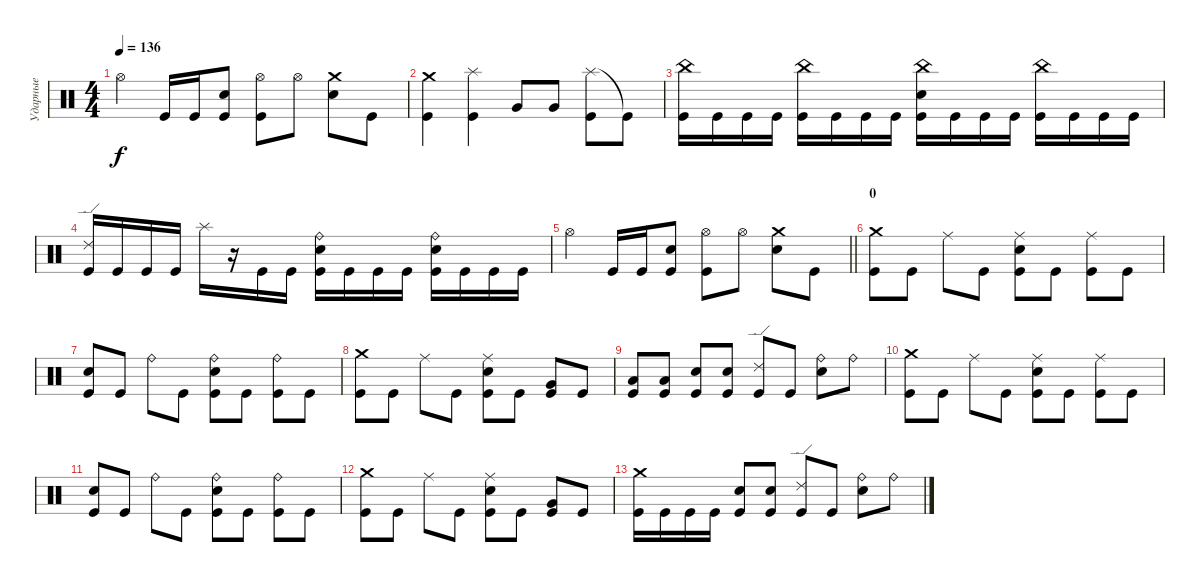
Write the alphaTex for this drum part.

\track ("Ударные" "Ударные") {instrument percussion}
\staff {score}
\articulation defaults
\ts (4 4)
\tempo 136
\clef neutral
\ks c "Hi-Hat (open)".4{dy f} "Kick (hit)".16 "Kick (hit)".16
("Electric Snare (hit)" "Kick (hit)").8 ("Hi-Hat (open)" "Kick (hit)").8 "Hi-Hat (open)".8 ("Crash medium (hit)" "Electric Snare (hit)").8 "Kick (hit)".8 |
("Crash medium (hit)" "Kick (hit)").4 ("Kick (hit)" "Splash (hit)").4 "Very Low Tom (hit)".8 "Very Low Tom (hit)".8 ("Splash (hit)" "Kick (hit)").8 "Kick (hit)"{t}.8 |
("China (hit)" "Kick (hit)").16 "Kick (hit)".16 "Kick (hit)".16 "Kick (hit)".16 ("China (hit)" "Kick (hit)").16 "Kick (hit)".16 "Kick (hit)".16 "Kick (hit)".16 ("Electric Snare (hit)" "China (hit)" "Kick (hit)").16 "Kick (hit)".16 "Kick (hit)".16 "Kick (hit)".16 ("China (hit)" "Kick (hit)").16 "Kick (hit)".16 "Kick (hit)".16 "Kick (hit)".16 |
("Ride (edge) 2" "Kick (hit)").16 "Kick (hit)".16 "Kick (hit)".16 "Kick (hit)".16 "Splash (hit)".16 r.16 "Kick (hit)".16 "Kick (hit)".16 ("Ride (bell)" "Electric Snare (hit)" "Kick (hit)").16 "Kick (hit)".16 "Kick (hit)".16 "Kick (hit)".16 ("Ride (bell)" "Electric Snare (hit)" "Kick (hit)").16 "Kick (hit)".16 "Kick (hit)".16 "Kick (hit)".16 |
\barLineRight lightlight "Hi-Hat (open)".4 "Kick (hit)".16 "Kick (hit)".16
("Electric Snare (hit)" "Kick (hit)").8 ("Hi-Hat (open)" "Kick (hit)").8 "Hi-Hat (open)".8 ("Crash medium (hit)" "Electric Snare (hit)").8 "Kick (hit)".8 |
\section ("" "0")
("Crash medium (hit)" "Kick (hit)").8 "Kick (hit)".8 "Ride (middle)".8 "Kick (hit)".8 ("Ride (middle)" "Kick (hit)" "Electric Snare (hit)").8 "Kick (hit)".8 ("Ride (middle)" "Kick (hit)").8 "Kick (hit)".8 |
("Kick (hit)" "Electric Snare (hit)").8 "Kick (hit)".8 "Ride (bell)".8 "Kick (hit)".8 ("Electric Snare (hit)" "Kick (hit)" "Ride (bell)").8 "Kick (hit)".8 ("Ride (bell)" "Kick (hit)").8 "Kick (hit)".8 |
("Crash medium (hit)" "Kick (hit)").8 "Kick (hit)".8 "Ride (middle)".8 "Kick (hit)".8 ("Ride (middle)" "Kick (hit)" "Electric Snare (hit)").8 "Kick (hit)".8 ("Very Low Tom (hit)" "Kick (hit)").8 "Kick (hit)".8 |
("Low Floor Tom (hit)" "Kick (hit)").8 ("Low Floor Tom (hit)" "Kick (hit)").8 ("Electric Snare (hit)" "Kick (hit)").8 ("Electric Snare (hit)" "Kick (hit)").8 ("Ride (edge) 2" "Kick (hit)").8 "Kick (hit)".8 ("Electric Snare (hit)" "Ride (bell)").8 "Ride (bell)".8 |
("Crash medium (hit)" "Kick (hit)").8 "Kick (hit)".8 "Ride (middle)".8 "Kick (hit)".8 ("Ride (middle)" "Kick (hit)" "Electric Snare (hit)").8 "Kick (hit)".8 ("Ride (middle)" "Kick (hit)").8 "Kick (hit)".8 |
("Kick (hit)" "Electric Snare (hit)").8 "Kick (hit)".8 "Ride (bell)".8 "Kick (hit)".8 ("Electric Snare (hit)" "Kick (hit)" "Ride (bell)").8 "Kick (hit)".8 ("Ride (bell)" "Kick (hit)").8 "Kick (hit)".8 |
("Crash medium (hit)" "Kick (hit)").8 "Kick (hit)".8 "Ride (middle)".8 "Kick (hit)".8 ("Ride (middle)" "Kick (hit)" "Electric Snare (hit)").8 "Kick (hit)".8 ("Very Low Tom (hit)" "Kick (hit)").8 "Kick (hit)".8 |
("Crash medium (hit)" "Kick (hit)").16 "Kick (hit)".16 "Kick (hit)".16 "Kick (hit)".16 ("Electric Snare (hit)" "Kick (hit)").8 ("Electric Snare (hit)" "Kick (hit)").8 ("Ride (edge) 2" "Kick (hit)").8 "Kick (hit)".8 ("Electric Snare (hit)" "Ride (bell)").8 "Ride (bell)".8
